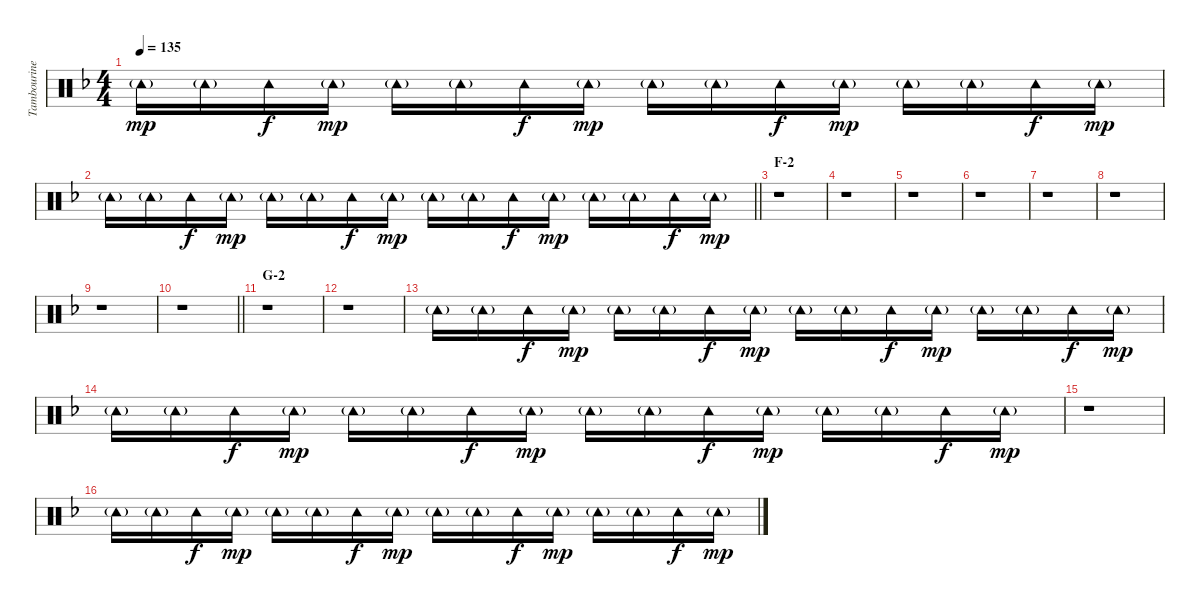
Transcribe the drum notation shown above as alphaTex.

\track ("Tambourine" "Tambourine") {instrument percussion}
\staff {score}
\articulation defaults
\ts (4 4)
\tempo 135
\clef neutral
\ks f "Tambourine (hit)"{g}.16{dy mp} "Tambourine (hit)"{g}.16 "Tambourine (hit)".16{dy f} "Tambourine (hit)"{g}.16{dy mp} "Tambourine (hit)"{g}.16 "Tambourine (hit)"{g}.16 "Tambourine (hit)".16{dy f} "Tambourine (hit)"{g}.16{dy mp} "Tambourine (hit)"{g}.16 "Tambourine (hit)"{g}.16 "Tambourine (hit)".16{dy f} "Tambourine (hit)"{g}.16{dy mp} "Tambourine (hit)"{g}.16 "Tambourine (hit)"{g}.16 "Tambourine (hit)".16{dy f} "Tambourine (hit)"{g}.16{dy mp}
|
\barLineRight lightlight "Tambourine (hit)"{g}.16 "Tambourine (hit)"{g}.16 "Tambourine (hit)".16{dy f} "Tambourine (hit)"{g}.16{dy mp} "Tambourine (hit)"{g}.16 "Tambourine (hit)"{g}.16 "Tambourine (hit)".16{dy f} "Tambourine (hit)"{g}.16{dy mp} "Tambourine (hit)"{g}.16 "Tambourine (hit)"{g}.16 "Tambourine (hit)".16{dy f} "Tambourine (hit)"{g}.16{dy mp} "Tambourine (hit)"{g}.16 "Tambourine (hit)"{g}.16 "Tambourine (hit)".16{dy f} "Tambourine (hit)"{g}.16{dy mp}
|
\section ("" "F-2")
r.1 |
r.1 |
r.1 |
r.1 |
r.1 |
r.1 |
r.1 |
\barLineRight lightlight
r.1 |
\section ("" "G-2")
r.1 |
r.1 |
"Tambourine (hit)"{g}.16 "Tambourine (hit)"{g}.16 "Tambourine (hit)".16{dy f} "Tambourine (hit)"{g}.16{dy mp} "Tambourine (hit)"{g}.16 "Tambourine (hit)"{g}.16 "Tambourine (hit)".16{dy f} "Tambourine (hit)"{g}.16{dy mp} "Tambourine (hit)"{g}.16 "Tambourine (hit)"{g}.16 "Tambourine (hit)".16{dy f} "Tambourine (hit)"{g}.16{dy mp} "Tambourine (hit)"{g}.16 "Tambourine (hit)"{g}.16 "Tambourine (hit)".16{dy f} "Tambourine (hit)"{g}.16{dy mp} |
"Tambourine (hit)"{g}.16 "Tambourine (hit)"{g}.16 "Tambourine (hit)".16{dy f} "Tambourine (hit)"{g}.16{dy mp} "Tambourine (hit)"{g}.16 "Tambourine (hit)"{g}.16 "Tambourine (hit)".16{dy f} "Tambourine (hit)"{g}.16{dy mp} "Tambourine (hit)"{g}.16 "Tambourine (hit)"{g}.16 "Tambourine (hit)".16{dy f} "Tambourine (hit)"{g}.16{dy mp} "Tambourine (hit)"{g}.16 "Tambourine (hit)"{g}.16 "Tambourine (hit)".16{dy f} "Tambourine (hit)"{g}.16{dy mp} |
r.1 |
"Tambourine (hit)"{g}.16 "Tambourine (hit)"{g}.16 "Tambourine (hit)".16{dy f} "Tambourine (hit)"{g}.16{dy mp} "Tambourine (hit)"{g}.16 "Tambourine (hit)"{g}.16 "Tambourine (hit)".16{dy f} "Tambourine (hit)"{g}.16{dy mp} "Tambourine (hit)"{g}.16 "Tambourine (hit)"{g}.16 "Tambourine (hit)".16{dy f} "Tambourine (hit)"{g}.16{dy mp} "Tambourine (hit)"{g}.16 "Tambourine (hit)"{g}.16 "Tambourine (hit)".16{dy f} "Tambourine (hit)"{g}.16{dy mp}
